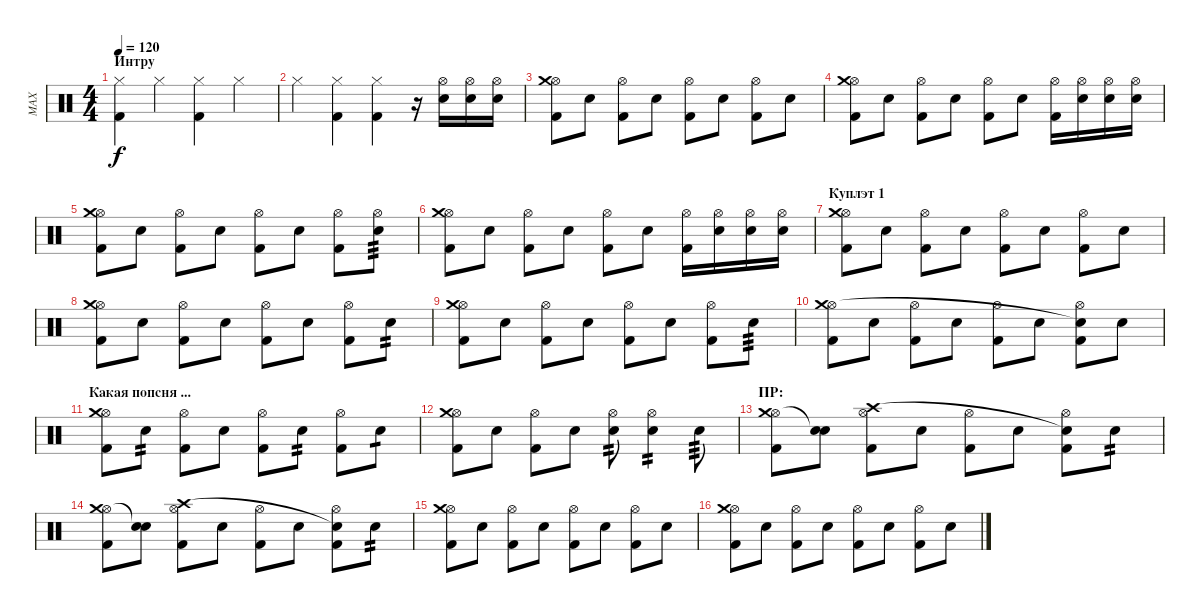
\track ("MAX" "MAX") {instrument percussion}
\staff {score}
\articulation defaults
\ts (4 4)
\section ("" "Интру")
\tempo 120
\clef neutral
\ks c
("Hi-Hat (closed)" "Kick (hit) 2").4{dy f} "Hi-Hat (closed)".4 ("Hi-Hat (closed)" "Kick (hit) 2").4 "Hi-Hat (closed)".4 |
"Hi-Hat (closed)".4 ("Hi-Hat (closed)" "Kick (hit) 2").4 ("Hi-Hat (closed)" "Kick (hit) 2").4 r.16 ("Snare (hit) 2" "Hi-Hat (open)").16 ("Snare (hit) 2" "Hi-Hat (open)").16 ("Snare (hit) 2" "Hi-Hat (open)").16 |
("Kick (hit) 2" "Hi-Hat (open)" "Crash medium (hit)").8 "Snare (hit) 2".8 ("Kick (hit) 2" "Hi-Hat (open)").8 "Snare (hit) 2".8 ("Kick (hit) 2" "Hi-Hat (open)").8 "Snare (hit) 2".8 ("Kick (hit) 2" "Hi-Hat (open)").8 "Snare (hit) 2".8 |
("Kick (hit) 2" "Hi-Hat (open)" "Crash medium (hit)").8 "Snare (hit) 2".8 ("Kick (hit) 2" "Hi-Hat (open)").8 "Snare (hit) 2".8 ("Kick (hit) 2" "Hi-Hat (open)").8 "Snare (hit) 2".8 ("Kick (hit) 2" "Hi-Hat (open)").16 ("Snare (hit) 2" "Hi-Hat (open)").16 ("Snare (hit) 2" "Hi-Hat (open)").16 ("Snare (hit) 2" "Hi-Hat (open)").16 |
("Kick (hit) 2" "Hi-Hat (open)" "Crash medium (hit)").8 "Snare (hit) 2".8 ("Kick (hit) 2" "Hi-Hat (open)").8 "Snare (hit) 2".8 ("Kick (hit) 2" "Hi-Hat (open)").8 "Snare (hit) 2".8 ("Kick (hit) 2" "Hi-Hat (open)").8 ("Hi-Hat (open)" "Snare (hit) 2").8{tp 3} |
("Kick (hit) 2" "Hi-Hat (open)" "Crash medium (hit)").8 "Snare (hit) 2".8 ("Kick (hit) 2" "Hi-Hat (open)").8 "Snare (hit) 2".8 ("Kick (hit) 2" "Hi-Hat (open)").8 "Snare (hit) 2".8 ("Kick (hit) 2" "Hi-Hat (open)").16 ("Snare (hit) 2" "Hi-Hat (open)").16 ("Snare (hit) 2" "Hi-Hat (open)").16 ("Snare (hit) 2" "Hi-Hat (open)").16 |
\section ("" "Куплэт 1")
("Kick (hit) 2" "Hi-Hat (open)" "Crash medium (hit)").8 "Snare (hit) 2".8 ("Kick (hit) 2" "Hi-Hat (open)").8 "Snare (hit) 2".8 ("Kick (hit) 2" "Hi-Hat (open)").8 "Snare (hit) 2".8 ("Kick (hit) 2" "Hi-Hat (open)").8 "Snare (hit) 2".8 |
("Kick (hit) 2" "Hi-Hat (open)" "Crash medium (hit)").8 "Snare (hit) 2".8 ("Kick (hit) 2" "Hi-Hat (open)").8 "Snare (hit) 2".8 ("Kick (hit) 2" "Hi-Hat (open)").8 "Snare (hit) 2".8 ("Kick (hit) 2" "Hi-Hat (open)").8 "Snare (hit) 2".8{tp 2} |
("Kick (hit) 2" "Hi-Hat (open)" "Crash medium (hit)").8 "Snare (hit) 2".8 ("Kick (hit) 2" "Hi-Hat (open)").8 "Snare (hit) 2".8 ("Kick (hit) 2" "Hi-Hat (open)").8 "Snare (hit) 2".8 ("Kick (hit) 2" "Hi-Hat (open)").8 "Snare (hit) 2".8{tp 3} |
("Kick (hit) 2" "Hi-Hat (open)" "Crash medium (hit)").8 "Snare (hit) 2".8 ("Kick (hit) 2" "Hi-Hat (open)").8 "Snare (hit) 2".8 ("Kick (hit) 2" "Hi-Hat (open)").8 "Snare (hit) 2".8 ("Kick (hit) 2" "Hi-Hat (open)" "Snare (hit)"{t}).8 "Snare (hit) 2".8 |
\section ("" "Какая попсня ...")
("Kick (hit) 2" "Hi-Hat (open)" "Crash medium (hit)").8 "Snare (hit) 2".8{tp 2} ("Kick (hit) 2" "Hi-Hat (open)").8 "Snare (hit) 2".8 ("Kick (hit) 2" "Hi-Hat (open)").8 "Snare (hit) 2".8{tp 2} ("Kick (hit) 2" "Hi-Hat (open)").8 "Snare (hit) 2".8{tp 1} |
("Kick (hit) 2" "Hi-Hat (open)" "Crash medium (hit)").8 "Snare (hit) 2".8 ("Kick (hit) 2" "Hi-Hat (open)").8 "Snare (hit) 2".8 ("Snare (hit) 2" "Hi-Hat (open)").8{tp 2} ("Snare (hit) 2" "Hi-Hat (open)").4{tp 2} "Snare (hit) 2".8{tp 3} |
\section ("" "ПР:")
("Kick (hit) 2" "Hi-Hat (open)" "Crash medium (hit)").8 ("Snare (hit) 2" "Snare (hit)"{t}).8 ("Kick (hit) 2" "Hi-Hat (open)" "Crash high (hit)").8 "Snare (hit) 2".8 ("Kick (hit) 2" "Hi-Hat (open)").8 "Snare (hit) 2".8 ("Kick (hit) 2" "Hi-Hat (open)" "Snare (hit)"{t}).8 "Snare (hit) 2".8{tp 2} |
("Kick (hit) 2" "Hi-Hat (open)" "Crash medium (hit)").8 ("Snare (hit) 2" "Snare (hit)"{t}).8 ("Kick (hit) 2" "Hi-Hat (open)" "Crash high (hit)").8 "Snare (hit) 2".8 ("Kick (hit) 2" "Hi-Hat (open)").8 "Snare (hit) 2".8 ("Kick (hit) 2" "Hi-Hat (open)" "Snare (hit)"{t}).8 "Snare (hit) 2".8{tp 2} |
("Kick (hit) 2" "Hi-Hat (open)" "Crash medium (hit)").8 "Snare (hit) 2".8 ("Kick (hit) 2" "Hi-Hat (open)").8 "Snare (hit) 2".8 ("Kick (hit) 2" "Hi-Hat (open)").8 "Snare (hit) 2".8 ("Kick (hit) 2" "Hi-Hat (open)").8 "Snare (hit) 2".8 |
("Kick (hit) 2" "Hi-Hat (open)" "Crash medium (hit)").8 "Snare (hit) 2".8 ("Kick (hit) 2" "Hi-Hat (open)").8 "Snare (hit) 2".8 ("Kick (hit) 2" "Hi-Hat (open)").8 "Snare (hit) 2".8 ("Kick (hit) 2" "Hi-Hat (open)").8 "Snare (hit) 2".8
